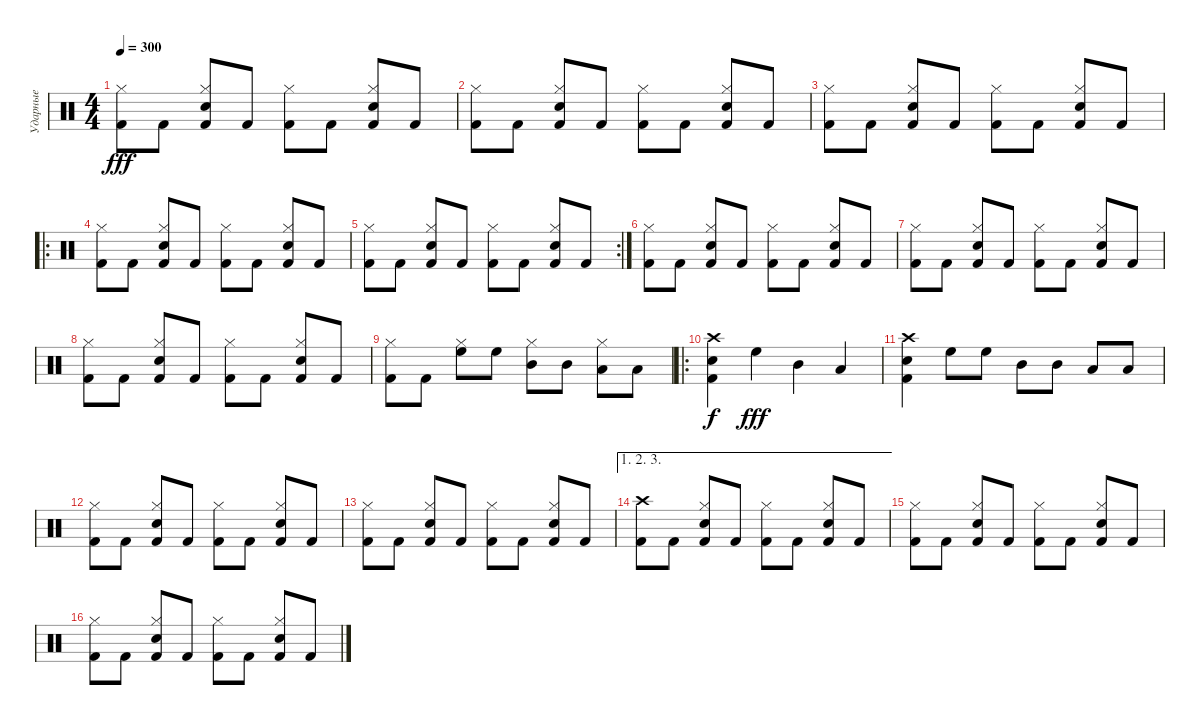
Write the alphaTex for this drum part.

\track ("Ударные" "Ударные") {instrument percussion}
\staff {score}
\articulation defaults
\ts (4 4)
\tempo 300
\clef neutral
\ks c
("Kick (hit) 2" "Hi-Hat (closed)").8{dy fff} "Kick (hit) 2".8 ("Kick (hit) 2" "Snare (hit) 2" "Hi-Hat (closed)").8 "Kick (hit) 2".8 ("Kick (hit) 2" "Hi-Hat (closed)").8 "Kick (hit) 2".8 ("Kick (hit) 2" "Snare (hit) 2" "Hi-Hat (closed)").8 "Kick (hit) 2".8 |
("Kick (hit) 2" "Hi-Hat (closed)").8 "Kick (hit) 2".8 ("Kick (hit) 2" "Snare (hit) 2" "Hi-Hat (closed)").8 "Kick (hit) 2".8 ("Kick (hit) 2" "Hi-Hat (closed)").8 "Kick (hit) 2".8 ("Kick (hit) 2" "Snare (hit) 2" "Hi-Hat (closed)").8 "Kick (hit) 2".8 |
("Kick (hit) 2" "Hi-Hat (closed)").8 "Kick (hit) 2".8 ("Kick (hit) 2" "Snare (hit) 2" "Hi-Hat (closed)").8 "Kick (hit) 2".8 ("Kick (hit) 2" "Hi-Hat (closed)").8 "Kick (hit) 2".8 ("Kick (hit) 2" "Snare (hit) 2" "Hi-Hat (closed)").8 "Kick (hit) 2".8 |
\ro
("Kick (hit) 2" "Hi-Hat (closed)").8 "Kick (hit) 2".8 ("Kick (hit) 2" "Snare (hit) 2" "Hi-Hat (closed)").8 "Kick (hit) 2".8 ("Kick (hit) 2" "Hi-Hat (closed)").8 "Kick (hit) 2".8 ("Kick (hit) 2" "Snare (hit) 2" "Hi-Hat (closed)").8 "Kick (hit) 2".8 |
\rc 2
("Kick (hit) 2" "Hi-Hat (closed)").8 "Kick (hit) 2".8 ("Kick (hit) 2" "Snare (hit) 2" "Hi-Hat (closed)").8 "Kick (hit) 2".8 ("Kick (hit) 2" "Hi-Hat (closed)").8 "Kick (hit) 2".8 ("Kick (hit) 2" "Snare (hit) 2" "Hi-Hat (closed)").8 "Kick (hit) 2".8 |
("Kick (hit) 2" "Hi-Hat (closed)").8 "Kick (hit) 2".8 ("Kick (hit) 2" "Snare (hit) 2" "Hi-Hat (closed)").8 "Kick (hit) 2".8 ("Kick (hit) 2" "Hi-Hat (closed)").8 "Kick (hit) 2".8 ("Kick (hit) 2" "Snare (hit) 2" "Hi-Hat (closed)").8 "Kick (hit) 2".8 |
("Kick (hit) 2" "Hi-Hat (closed)").8 "Kick (hit) 2".8 ("Kick (hit) 2" "Snare (hit) 2" "Hi-Hat (closed)").8 "Kick (hit) 2".8 ("Kick (hit) 2" "Hi-Hat (closed)").8 "Kick (hit) 2".8 ("Kick (hit) 2" "Snare (hit) 2" "Hi-Hat (closed)").8 "Kick (hit) 2".8 |
("Kick (hit) 2" "Hi-Hat (closed)").8 "Kick (hit) 2".8 ("Kick (hit) 2" "Snare (hit) 2" "Hi-Hat (closed)").8 "Kick (hit) 2".8 ("Kick (hit) 2" "Hi-Hat (closed)").8 "Kick (hit) 2".8 ("Kick (hit) 2" "Snare (hit) 2" "Hi-Hat (closed)").8 "Kick (hit) 2".8 |
("Kick (hit) 2" "Hi-Hat (closed)").8 "Kick (hit) 2".8 ("High Floor Tom (hit)" "Hi-Hat (closed)").8 "High Floor Tom (hit)".8 ("Mid Tom (hit)" "Hi-Hat (closed)").8 "Mid Tom (hit)".8 ("Low Tom (hit)" "Hi-Hat (closed)").8 "Low Tom (hit)".8 |
\ro
("Kick (hit) 2" "Snare (hit) 2" "Crash high (hit)").4{dy f} "High Floor Tom (hit)".4{dy fff} "Mid Tom (hit)".4 "Low Tom (hit)".4 |
("Kick (hit) 2" "Snare (hit) 2" "Crash high (hit)").4 "High Floor Tom (hit)".8 "High Floor Tom (hit)".8 "Mid Tom (hit)".8 "Mid Tom (hit)".8 "Low Tom (hit)".8 "Low Tom (hit)".8 |
("Kick (hit) 2" "Hi-Hat (closed)").8 "Kick (hit) 2".8 ("Kick (hit) 2" "Snare (hit) 2" "Hi-Hat (closed)").8 "Kick (hit) 2".8 ("Kick (hit) 2" "Hi-Hat (closed)").8 "Kick (hit) 2".8 ("Kick (hit) 2" "Snare (hit) 2" "Hi-Hat (closed)").8 "Kick (hit) 2".8 |
("Kick (hit) 2" "Hi-Hat (closed)").8 "Kick (hit) 2".8 ("Kick (hit) 2" "Snare (hit) 2" "Hi-Hat (closed)").8 "Kick (hit) 2".8 ("Kick (hit) 2" "Hi-Hat (closed)").8 "Kick (hit) 2".8 ("Kick (hit) 2" "Snare (hit) 2" "Hi-Hat (closed)").8 "Kick (hit) 2".8 |
\ae (1 2 3)
("Kick (hit) 2" "Crash high (hit)").8 "Kick (hit) 2".8 ("Kick (hit) 2" "Snare (hit) 2" "Hi-Hat (closed)").8 "Kick (hit) 2".8 ("Kick (hit) 2" "Hi-Hat (closed)").8 "Kick (hit) 2".8 ("Kick (hit) 2" "Snare (hit) 2" "Hi-Hat (closed)").8 "Kick (hit) 2".8 |
("Kick (hit) 2" "Hi-Hat (closed)").8 "Kick (hit) 2".8 ("Kick (hit) 2" "Snare (hit) 2" "Hi-Hat (closed)").8 "Kick (hit) 2".8 ("Kick (hit) 2" "Hi-Hat (closed)").8 "Kick (hit) 2".8 ("Kick (hit) 2" "Snare (hit) 2" "Hi-Hat (closed)").8 "Kick (hit) 2".8 |
("Kick (hit) 2" "Hi-Hat (closed)").8 "Kick (hit) 2".8 ("Kick (hit) 2" "Snare (hit) 2" "Hi-Hat (closed)").8 "Kick (hit) 2".8 ("Kick (hit) 2" "Hi-Hat (closed)").8 "Kick (hit) 2".8 ("Kick (hit) 2" "Snare (hit) 2" "Hi-Hat (closed)").8 "Kick (hit) 2".8
